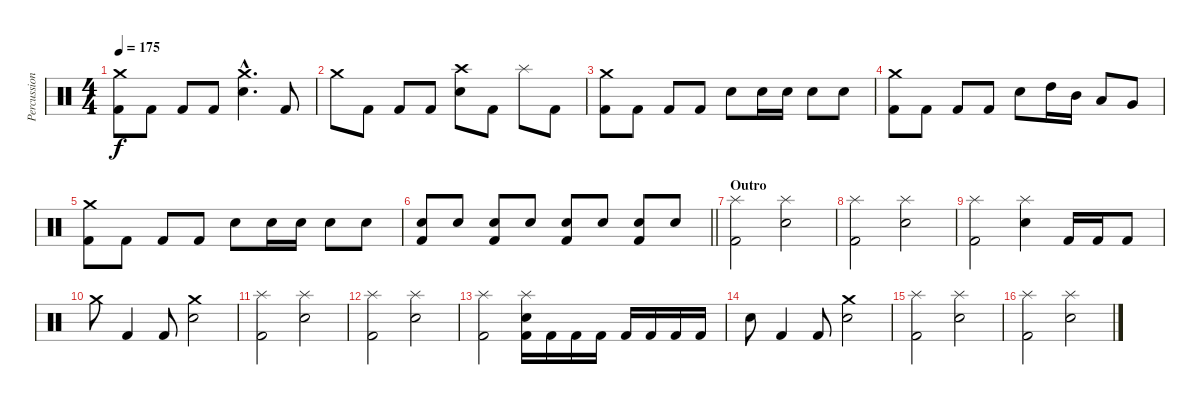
\track ("Percussion" "Percussion") {instrument percussion}
\staff {score}
\articulation defaults
\ts (4 4)
\tempo 175
\clef neutral
\ks c
("Crash medium (hit)" "Kick (hit) 2").8{dy f} "Kick (hit) 2".8 "Kick (hit) 2".8 "Kick (hit) 2".8 ("Crash medium (hit)"{hac} "Electric Snare (hit)"{hac}).4{d} "Kick (hit) 2".8 |
"Crash medium (hit)".8 "Kick (hit) 2".8 "Kick (hit) 2".8 "Kick (hit) 2".8 ("Crash high (hit)" "Electric Snare (hit)").8 "Kick (hit) 2".8 "Splash (hit)".8 "Kick (hit) 2".8 |
("Crash medium (hit)" "Kick (hit) 2").8 "Kick (hit) 2".8 "Kick (hit) 2".8 "Kick (hit) 2".8 "Electric Snare (hit)".8 "Electric Snare (hit)".16 "Electric Snare (hit)".16 "Electric Snare (hit)".8 "Electric Snare (hit)".8 |
("Crash medium (hit)" "Kick (hit) 2").8 "Kick (hit) 2".8 "Kick (hit) 2".8 "Kick (hit) 2".8 "Electric Snare (hit)".8 "High Tom (hit)".16 "Mid Tom (hit)".16 "Low Tom (hit)".8 "Very Low Tom (hit)".8 |
("Crash medium (hit)" "Kick (hit) 2").8 "Kick (hit) 2".8 "Kick (hit) 2".8 "Kick (hit) 2".8 "Electric Snare (hit)".8 "Electric Snare (hit)".16 "Electric Snare (hit)".16 "Electric Snare (hit)".8 "Electric Snare (hit)".8 |
\barLineRight lightlight
("Electric Snare (hit)" "Kick (hit) 2").8 "Electric Snare (hit)".8 ("Electric Snare (hit)" "Kick (hit) 2").8 "Electric Snare (hit)".8 ("Electric Snare (hit)" "Kick (hit) 2").8 "Electric Snare (hit)".8 ("Electric Snare (hit)" "Kick (hit) 2").8 "Electric Snare (hit)".8 |
\section ("" "Outro")
("Splash (hit)" "Kick (hit) 2").2 ("Splash (hit)" "Electric Snare (hit)").2 |
("Splash (hit)" "Kick (hit) 2").2 ("Splash (hit)" "Electric Snare (hit)").2 |
("Splash (hit)" "Kick (hit) 2").2 ("Splash (hit)" "Electric Snare (hit)").4 "Kick (hit) 2".16 "Kick (hit) 2".16 "Kick (hit) 2".8 |
"Crash medium (hit)".8 "Kick (hit) 2".4 "Kick (hit) 2".8 ("Crash medium (hit)" "Electric Snare (hit)").2 |
("Splash (hit)" "Kick (hit) 2").2 ("Splash (hit)" "Electric Snare (hit)").2 |
("Splash (hit)" "Kick (hit) 2").2 ("Splash (hit)" "Electric Snare (hit)").2 |
("Splash (hit)" "Kick (hit) 2").2 ("Splash (hit)" "Electric Snare (hit)" "Kick (hit) 2").16 "Kick (hit) 2".16 "Kick (hit) 2".16 "Kick (hit) 2".16 "Kick (hit) 2".16 "Kick (hit) 2".16 "Kick (hit) 2".16 "Kick (hit) 2".16 |
"Electric Snare (hit)".8 "Kick (hit) 2".4 "Kick (hit) 2".8 ("Crash medium (hit)" "Electric Snare (hit)").2 |
("Splash (hit)" "Kick (hit) 2").2 ("Splash (hit)" "Electric Snare (hit)").2 |
("Splash (hit)" "Kick (hit) 2").2 ("Splash (hit)" "Electric Snare (hit)").2
